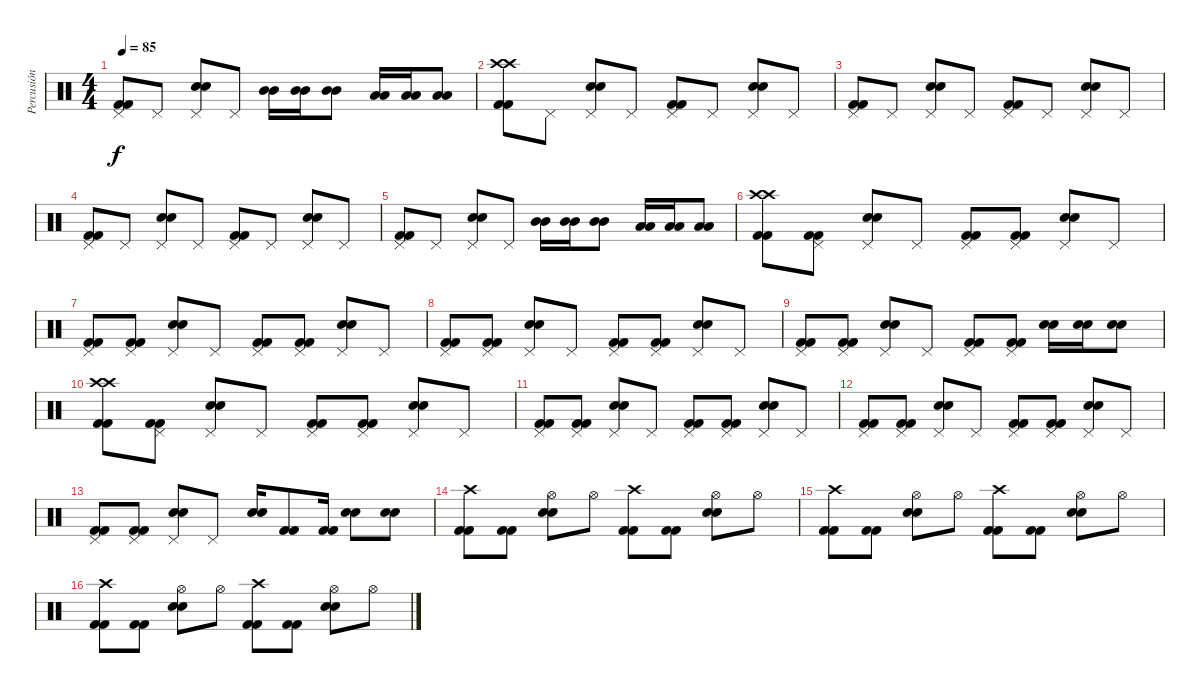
\track ("Percusión" "Percusión") {instrument percussion}
\staff {score}
\articulation defaults
\ts (4 4)
\tempo 85
\clef neutral
\ks c
("Kick (hit) 2" "Kick (hit) 2" "Pedal Hi-Hat (hit)").8{dy f} "Pedal Hi-Hat (hit)".8 ("Electric Snare (hit)" "Electric Snare (hit)" "Pedal Hi-Hat (hit)").8 "Pedal Hi-Hat (hit)".8 ("Mid Tom (hit)" "Mid Tom (hit)").16 ("Mid Tom (hit)" "Mid Tom (hit)").16 ("Mid Tom (hit)" "Mid Tom (hit)").8 ("Low Tom (hit)" "Low Tom (hit)").16 ("Low Tom (hit)" "Low Tom (hit)").16 ("Low Tom (hit)" "Low Tom (hit)").8 |
("Kick (hit) 2" "Kick (hit) 2" "Crash high (hit)" "Crash high (hit)").8 "Pedal Hi-Hat (hit)".8 ("Electric Snare (hit)" "Electric Snare (hit)" "Pedal Hi-Hat (hit)").8 "Pedal Hi-Hat (hit)".8 ("Kick (hit) 2" "Kick (hit) 2" "Pedal Hi-Hat (hit)").8 "Pedal Hi-Hat (hit)".8 ("Electric Snare (hit)" "Electric Snare (hit)" "Pedal Hi-Hat (hit)").8 "Pedal Hi-Hat (hit)".8 |
("Kick (hit) 2" "Kick (hit) 2" "Pedal Hi-Hat (hit)").8 "Pedal Hi-Hat (hit)".8 ("Electric Snare (hit)" "Electric Snare (hit)" "Pedal Hi-Hat (hit)").8 "Pedal Hi-Hat (hit)".8 ("Kick (hit) 2" "Kick (hit) 2" "Pedal Hi-Hat (hit)").8 "Pedal Hi-Hat (hit)".8 ("Pedal Hi-Hat (hit)" "Electric Snare (hit)" "Electric Snare (hit)").8 "Pedal Hi-Hat (hit)".8 |
("Kick (hit) 2" "Kick (hit) 2" "Pedal Hi-Hat (hit)").8 "Pedal Hi-Hat (hit)".8 ("Electric Snare (hit)" "Electric Snare (hit)" "Pedal Hi-Hat (hit)").8 "Pedal Hi-Hat (hit)".8 ("Kick (hit) 2" "Kick (hit) 2" "Pedal Hi-Hat (hit)").8 "Pedal Hi-Hat (hit)".8 ("Electric Snare (hit)" "Electric Snare (hit)" "Pedal Hi-Hat (hit)").8 "Pedal Hi-Hat (hit)".8 |
("Kick (hit) 2" "Kick (hit) 2" "Pedal Hi-Hat (hit)").8 "Pedal Hi-Hat (hit)".8 ("Electric Snare (hit)" "Electric Snare (hit)" "Pedal Hi-Hat (hit)").8 "Pedal Hi-Hat (hit)".8 ("Mid Tom (hit)" "Mid Tom (hit)").16 ("Mid Tom (hit)" "Mid Tom (hit)").16 ("Mid Tom (hit)" "Mid Tom (hit)").8 ("Low Tom (hit)" "Low Tom (hit)").16 ("Low Tom (hit)" "Low Tom (hit)").16 ("Low Tom (hit)" "Low Tom (hit)").8 |
("Kick (hit) 2" "Kick (hit) 2" "Crash high (hit)" "Crash high (hit)").8 ("Kick (hit) 2" "Kick (hit) 2" "Pedal Hi-Hat (hit)").8 ("Electric Snare (hit)" "Electric Snare (hit)" "Pedal Hi-Hat (hit)").8 "Pedal Hi-Hat (hit)".8 ("Kick (hit) 2" "Kick (hit) 2" "Pedal Hi-Hat (hit)").8 ("Kick (hit) 2" "Kick (hit) 2" "Pedal Hi-Hat (hit)").8 ("Electric Snare (hit)" "Electric Snare (hit)" "Pedal Hi-Hat (hit)").8 "Pedal Hi-Hat (hit)".8 |
("Kick (hit) 2" "Kick (hit) 2" "Pedal Hi-Hat (hit)").8 ("Kick (hit) 2" "Kick (hit) 2" "Pedal Hi-Hat (hit)").8 ("Electric Snare (hit)" "Electric Snare (hit)" "Pedal Hi-Hat (hit)").8 "Pedal Hi-Hat (hit)".8 ("Kick (hit) 2" "Kick (hit) 2" "Pedal Hi-Hat (hit)").8 ("Kick (hit) 2" "Kick (hit) 2" "Pedal Hi-Hat (hit)").8 ("Electric Snare (hit)" "Electric Snare (hit)" "Pedal Hi-Hat (hit)").8 "Pedal Hi-Hat (hit)".8 |
("Kick (hit) 2" "Kick (hit) 2" "Pedal Hi-Hat (hit)").8 ("Kick (hit) 2" "Kick (hit) 2" "Pedal Hi-Hat (hit)").8 ("Electric Snare (hit)" "Electric Snare (hit)" "Pedal Hi-Hat (hit)").8 "Pedal Hi-Hat (hit)".8 ("Kick (hit) 2" "Kick (hit) 2" "Pedal Hi-Hat (hit)").8 ("Kick (hit) 2" "Kick (hit) 2" "Pedal Hi-Hat (hit)").8 ("Electric Snare (hit)" "Electric Snare (hit)" "Pedal Hi-Hat (hit)").8 "Pedal Hi-Hat (hit)".8 |
("Kick (hit) 2" "Kick (hit) 2" "Pedal Hi-Hat (hit)").8 ("Kick (hit) 2" "Kick (hit) 2" "Pedal Hi-Hat (hit)").8 ("Electric Snare (hit)" "Electric Snare (hit)" "Pedal Hi-Hat (hit)").8 "Pedal Hi-Hat (hit)".8 ("Kick (hit) 2" "Kick (hit) 2" "Pedal Hi-Hat (hit)").8 ("Kick (hit) 2" "Kick (hit) 2" "Pedal Hi-Hat (hit)").8 ("Electric Snare (hit)" "Electric Snare (hit)").16 ("Electric Snare (hit)" "Electric Snare (hit)").16 ("Electric Snare (hit)" "Electric Snare (hit)").8 |
("Kick (hit) 2" "Kick (hit) 2" "Crash high (hit)" "Crash high (hit)").8 ("Kick (hit) 2" "Kick (hit) 2" "Pedal Hi-Hat (hit)").8 ("Electric Snare (hit)" "Electric Snare (hit)" "Pedal Hi-Hat (hit)").8 "Pedal Hi-Hat (hit)".8 ("Kick (hit) 2" "Kick (hit) 2" "Pedal Hi-Hat (hit)").8 ("Kick (hit) 2" "Kick (hit) 2" "Pedal Hi-Hat (hit)").8 ("Electric Snare (hit)" "Electric Snare (hit)" "Pedal Hi-Hat (hit)").8 "Pedal Hi-Hat (hit)".8 |
("Kick (hit) 2" "Kick (hit) 2" "Pedal Hi-Hat (hit)").8 ("Kick (hit) 2" "Kick (hit) 2" "Pedal Hi-Hat (hit)").8 ("Electric Snare (hit)" "Electric Snare (hit)" "Pedal Hi-Hat (hit)").8 "Pedal Hi-Hat (hit)".8 ("Kick (hit) 2" "Kick (hit) 2" "Pedal Hi-Hat (hit)").8 ("Kick (hit) 2" "Kick (hit) 2" "Pedal Hi-Hat (hit)").8 ("Electric Snare (hit)" "Electric Snare (hit)" "Pedal Hi-Hat (hit)").8 "Pedal Hi-Hat (hit)".8 |
("Kick (hit) 2" "Kick (hit) 2" "Pedal Hi-Hat (hit)").8 ("Kick (hit) 2" "Kick (hit) 2" "Pedal Hi-Hat (hit)").8 ("Electric Snare (hit)" "Electric Snare (hit)" "Pedal Hi-Hat (hit)").8 "Pedal Hi-Hat (hit)".8 ("Kick (hit) 2" "Kick (hit) 2" "Pedal Hi-Hat (hit)").8 ("Kick (hit) 2" "Kick (hit) 2" "Pedal Hi-Hat (hit)").8 ("Electric Snare (hit)" "Electric Snare (hit)" "Pedal Hi-Hat (hit)").8 "Pedal Hi-Hat (hit)".8 |
("Kick (hit) 2" "Kick (hit) 2" "Pedal Hi-Hat (hit)").8 ("Kick (hit) 2" "Kick (hit) 2" "Pedal Hi-Hat (hit)").8 ("Electric Snare (hit)" "Electric Snare (hit)" "Pedal Hi-Hat (hit)").8 "Pedal Hi-Hat (hit)".8 ("Electric Snare (hit)" "Electric Snare (hit)").16 ("Kick (hit) 2" "Kick (hit) 2").8 ("Kick (hit) 2" "Kick (hit) 2").16 ("Electric Snare (hit)" "Electric Snare (hit)").8 ("Electric Snare (hit)" "Electric Snare (hit)").8 |
("Crash high (hit)" "Kick (hit) 2" "Kick (hit) 2").8 ("Kick (hit) 2" "Kick (hit) 2").8 ("Hi-Hat (open)" "Electric Snare (hit)" "Electric Snare (hit)").8 "Hi-Hat (open)".8 ("Crash high (hit)" "Kick (hit) 2" "Kick (hit) 2").8 ("Kick (hit) 2" "Kick (hit) 2").8 ("Hi-Hat (open)" "Electric Snare (hit)" "Electric Snare (hit)").8 "Hi-Hat (open)".8 |
("Crash high (hit)" "Kick (hit) 2" "Kick (hit) 2").8 ("Kick (hit) 2" "Kick (hit) 2").8 ("Hi-Hat (open)" "Electric Snare (hit)" "Electric Snare (hit)").8 "Hi-Hat (open)".8 ("Crash high (hit)" "Kick (hit) 2" "Kick (hit) 2").8 ("Kick (hit) 2" "Kick (hit) 2").8 ("Hi-Hat (open)" "Electric Snare (hit)" "Electric Snare (hit)").8 "Hi-Hat (open)".8 |
("Crash high (hit)" "Kick (hit) 2" "Kick (hit) 2").8 ("Kick (hit) 2" "Kick (hit) 2").8 ("Hi-Hat (open)" "Electric Snare (hit)" "Electric Snare (hit)").8 "Hi-Hat (open)".8 ("Crash high (hit)" "Kick (hit) 2" "Kick (hit) 2").8 ("Kick (hit) 2" "Kick (hit) 2").8 ("Hi-Hat (open)" "Electric Snare (hit)" "Electric Snare (hit)").8 "Hi-Hat (open)".8
